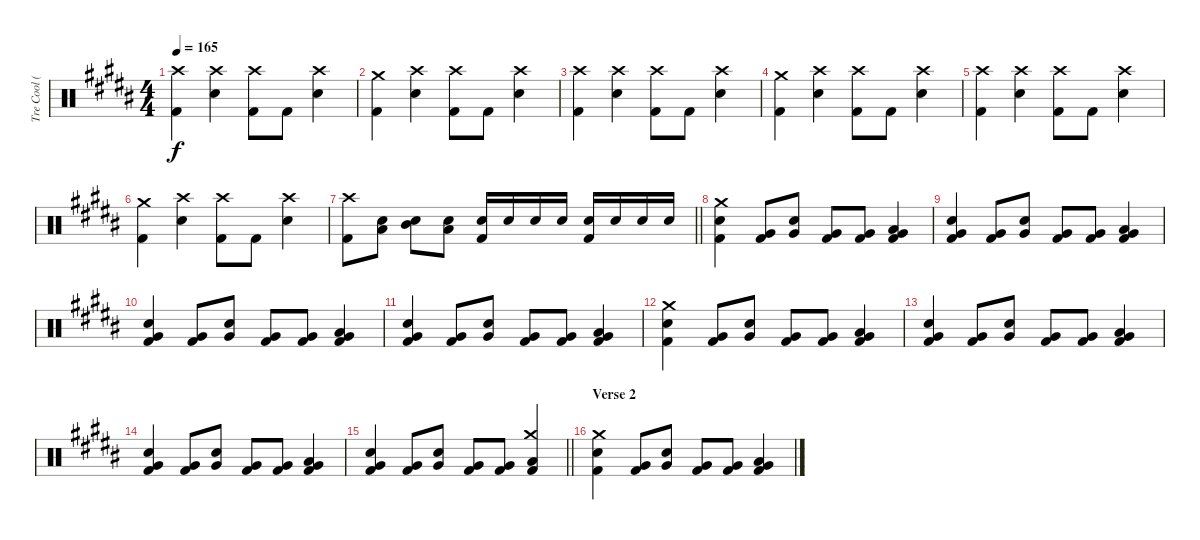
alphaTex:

\track ("Tre Cool (Drums)" "Tre Cool (") {instrument percussion}
\staff {score}
\articulation defaults
\ts (4 4)
\tempo 165
\clef neutral
\ks b
("Crash high (hit)" "Kick (hit) 2").4{dy f} ("Crash high (hit)" "Electric Snare (hit)").4 ("Crash high (hit)" "Kick (hit) 2").8 "Kick (hit) 2".8 ("Crash high (hit)" "Electric Snare (hit)").4 |
("Crash medium (hit)" "Kick (hit) 2").4 ("Crash high (hit)" "Electric Snare (hit)").4 ("Crash high (hit)" "Kick (hit) 2").8 "Kick (hit) 2".8 ("Crash high (hit)" "Electric Snare (hit)").4 |
("Crash high (hit)" "Kick (hit) 2").4 ("Crash high (hit)" "Electric Snare (hit)").4 ("Crash high (hit)" "Kick (hit) 2").8 "Kick (hit) 2".8 ("Crash high (hit)" "Electric Snare (hit)").4 |
("Crash medium (hit)" "Kick (hit) 2").4 ("Crash high (hit)" "Electric Snare (hit)").4 ("Crash high (hit)" "Kick (hit) 2").8 "Kick (hit) 2".8 ("Crash high (hit)" "Electric Snare (hit)").4 |
("Crash high (hit)" "Kick (hit) 2").4 ("Crash high (hit)" "Electric Snare (hit)").4 ("Crash high (hit)" "Kick (hit) 2").8 "Kick (hit) 2".8 ("Crash high (hit)" "Electric Snare (hit)").4 |
("Crash medium (hit)" "Kick (hit) 2").4 ("Crash high (hit)" "Electric Snare (hit)").4 ("Crash high (hit)" "Kick (hit) 2").8 "Kick (hit) 2".8 ("Crash high (hit)" "Electric Snare (hit)").4 |
\barLineRight lightlight
("Crash high (hit)" "Kick (hit) 2").8 ("Low Tom (hit)" "Electric Snare (hit)").8 ("Mid Tom (hit)" "Electric Snare (hit)").8 ("Low Tom (hit)" "Electric Snare (hit)").8 ("Electric Snare (hit)" "Kick (hit) 2").16 "Electric Snare (hit)".16 "Electric Snare (hit)".16 "Electric Snare (hit)".16 ("Electric Snare (hit)" "Kick (hit) 2").16 "Electric Snare (hit)".16 "Electric Snare (hit)".16 "Electric Snare (hit)".16 |
("Crash medium (hit)" "Electric Snare (hit)" "Kick (hit) 2").4 ("Very Low Tom (hit)" "Kick (hit) 2").8 ("Very Low Tom (hit)" "Electric Snare (hit)").8 ("Very Low Tom (hit)" "Kick (hit) 2").8 ("Very Low Tom (hit)" "Kick (hit) 2").8 ("Very Low Tom (hit)" "Low Tom (hit)" "Kick (hit) 2").4 |
("Very Low Tom (hit)" "Electric Snare (hit)" "Kick (hit) 2").4 ("Very Low Tom (hit)" "Kick (hit) 2").8 ("Very Low Tom (hit)" "Electric Snare (hit)").8 ("Very Low Tom (hit)" "Kick (hit) 2").8 ("Very Low Tom (hit)" "Kick (hit) 2").8 ("Very Low Tom (hit)" "Low Tom (hit)" "Kick (hit) 2").4 |
("Very Low Tom (hit)" "Electric Snare (hit)" "Kick (hit) 2").4 ("Very Low Tom (hit)" "Kick (hit) 2").8 ("Very Low Tom (hit)" "Electric Snare (hit)").8 ("Very Low Tom (hit)" "Kick (hit) 2").8 ("Very Low Tom (hit)" "Kick (hit) 2").8 ("Very Low Tom (hit)" "Low Tom (hit)" "Kick (hit) 2").4 |
("Very Low Tom (hit)" "Electric Snare (hit)" "Kick (hit) 2").4 ("Very Low Tom (hit)" "Kick (hit) 2").8 ("Very Low Tom (hit)" "Electric Snare (hit)").8 ("Very Low Tom (hit)" "Kick (hit) 2").8 ("Very Low Tom (hit)" "Kick (hit) 2").8 ("Very Low Tom (hit)" "Low Tom (hit)" "Kick (hit) 2").4 |
("Crash medium (hit)" "Electric Snare (hit)" "Kick (hit) 2").4 ("Very Low Tom (hit)" "Kick (hit) 2").8 ("Very Low Tom (hit)" "Electric Snare (hit)").8 ("Very Low Tom (hit)" "Kick (hit) 2").8 ("Very Low Tom (hit)" "Kick (hit) 2").8 ("Very Low Tom (hit)" "Low Tom (hit)" "Kick (hit) 2").4 |
("Very Low Tom (hit)" "Electric Snare (hit)" "Kick (hit) 2").4 ("Very Low Tom (hit)" "Kick (hit) 2").8 ("Very Low Tom (hit)" "Electric Snare (hit)").8 ("Very Low Tom (hit)" "Kick (hit) 2").8 ("Very Low Tom (hit)" "Kick (hit) 2").8 ("Very Low Tom (hit)" "Low Tom (hit)" "Kick (hit) 2").4 |
("Very Low Tom (hit)" "Electric Snare (hit)" "Kick (hit) 2").4 ("Very Low Tom (hit)" "Kick (hit) 2").8 ("Very Low Tom (hit)" "Electric Snare (hit)").8 ("Very Low Tom (hit)" "Kick (hit) 2").8 ("Very Low Tom (hit)" "Kick (hit) 2").8 ("Very Low Tom (hit)" "Low Tom (hit)" "Kick (hit) 2").4 |
\barLineRight lightlight
("Very Low Tom (hit)" "Electric Snare (hit)" "Kick (hit) 2").4 ("Very Low Tom (hit)" "Kick (hit) 2").8 ("Very Low Tom (hit)" "Electric Snare (hit)").8 ("Very Low Tom (hit)" "Kick (hit) 2").8 ("Very Low Tom (hit)" "Kick (hit) 2").8 ("Crash medium (hit)" "Low Tom (hit)" "Kick (hit) 2").4 |
\section ("" "Verse 2")
("Crash medium (hit)" "Electric Snare (hit)" "Kick (hit) 2").4 ("Very Low Tom (hit)" "Kick (hit) 2").8 ("Very Low Tom (hit)" "Electric Snare (hit)").8 ("Very Low Tom (hit)" "Kick (hit) 2").8 ("Very Low Tom (hit)" "Kick (hit) 2").8 ("Very Low Tom (hit)" "Low Tom (hit)" "Kick (hit) 2").4
